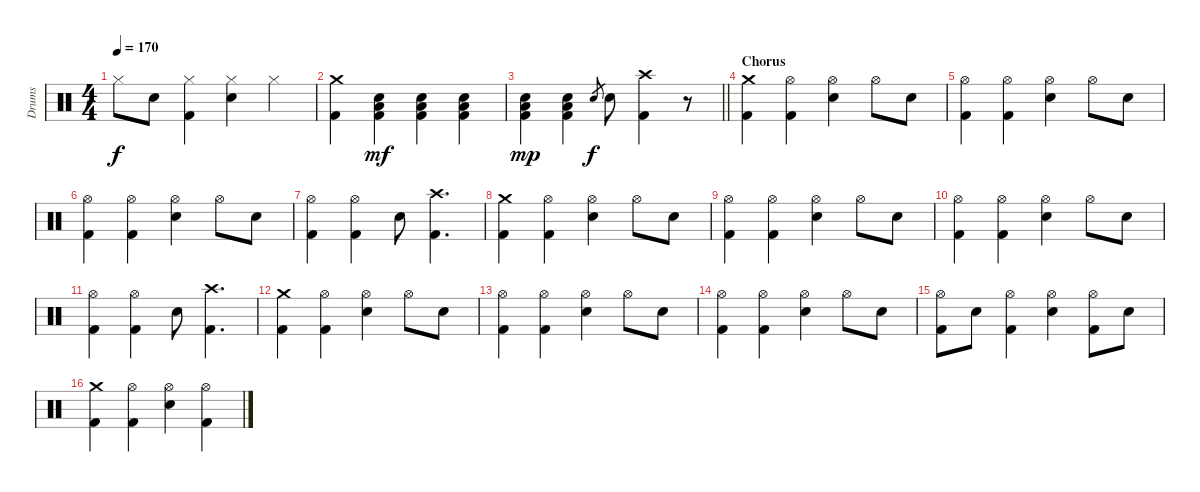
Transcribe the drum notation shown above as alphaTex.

\track ("Drums" "Drums") {instrument percussion}
\staff {score}
\articulation defaults
\ts (4 4)
\tempo 170
\clef neutral
\ks c "Hi-Hat (closed)".8{dy f} "Electric Snare (hit)".8
("Hi-Hat (closed)" "Kick (hit) 2").4 ("Hi-Hat (closed)" "Electric Snare (hit)").4 "Hi-Hat (closed)".4 |
("Crash medium (hit)" "Kick (hit) 2").4 ("Low Floor Tom (hit)" "Electric Snare (hit)" "Kick (hit) 2").4{dy mf} ("Low Floor Tom (hit)" "Electric Snare (hit)" "Kick (hit) 2").4 ("Low Floor Tom (hit)" "Electric Snare (hit)" "Kick (hit) 2").4 |
\barLineRight lightlight
("Low Floor Tom (hit)" "Electric Snare (hit)" "Kick (hit) 2").4{dy mp} ("Low Floor Tom (hit)" "Electric Snare (hit)" "Kick (hit) 2").4 "Electric Snare (hit)".8{gr dy f} "Electric Snare (hit)".8 ("Crash high (hit)" "Kick (hit) 2").4 r.8 |
\section ("" "Chorus")
("Crash medium (hit)" "Kick (hit) 2").4 ("Hi-Hat (open)" "Kick (hit) 2").4 ("Hi-Hat (open)" "Electric Snare (hit)").4 "Hi-Hat (open)".8 "Electric Snare (hit)".8 |
("Hi-Hat (open)" "Kick (hit) 2").4 ("Hi-Hat (open)" "Kick (hit) 2").4 ("Hi-Hat (open)" "Electric Snare (hit)").4 "Hi-Hat (open)".8 "Electric Snare (hit)".8 |
("Hi-Hat (open)" "Kick (hit) 2").4 ("Hi-Hat (open)" "Kick (hit) 2").4 ("Hi-Hat (open)" "Electric Snare (hit)").4 "Hi-Hat (open)".8 "Electric Snare (hit)".8 |
("Hi-Hat (open)" "Kick (hit) 2").4 ("Hi-Hat (open)" "Kick (hit) 2").4 "Electric Snare (hit)".8 ("Crash high (hit)" "Kick (hit) 2").4{d} |
("Crash medium (hit)" "Kick (hit) 2").4 ("Hi-Hat (open)" "Kick (hit) 2").4 ("Hi-Hat (open)" "Electric Snare (hit)").4 "Hi-Hat (open)".8 "Electric Snare (hit)".8 |
("Hi-Hat (open)" "Kick (hit) 2").4 ("Hi-Hat (open)" "Kick (hit) 2").4 ("Hi-Hat (open)" "Electric Snare (hit)").4 "Hi-Hat (open)".8 "Electric Snare (hit)".8 |
("Hi-Hat (open)" "Kick (hit) 2").4 ("Hi-Hat (open)" "Kick (hit) 2").4 ("Hi-Hat (open)" "Electric Snare (hit)").4 "Hi-Hat (open)".8 "Electric Snare (hit)".8 |
("Hi-Hat (open)" "Kick (hit) 2").4 ("Hi-Hat (open)" "Kick (hit) 2").4 "Electric Snare (hit)".8 ("Crash high (hit)" "Kick (hit) 2").4{d} |
("Crash medium (hit)" "Kick (hit) 2").4 ("Hi-Hat (open)" "Kick (hit) 2").4 ("Hi-Hat (open)" "Electric Snare (hit)").4 "Hi-Hat (open)".8 "Electric Snare (hit)".8 |
("Hi-Hat (open)" "Kick (hit) 2").4 ("Hi-Hat (open)" "Kick (hit) 2").4 ("Hi-Hat (open)" "Electric Snare (hit)").4 "Hi-Hat (open)".8 "Electric Snare (hit)".8 |
("Hi-Hat (open)" "Kick (hit) 2").4 ("Hi-Hat (open)" "Kick (hit) 2").4 ("Hi-Hat (open)" "Electric Snare (hit)").4 "Hi-Hat (open)".8 "Electric Snare (hit)".8 |
("Hi-Hat (open)" "Kick (hit) 2").8 "Electric Snare (hit)".8 ("Hi-Hat (open)" "Kick (hit) 2").4 ("Hi-Hat (open)" "Electric Snare (hit)").4 ("Hi-Hat (open)" "Kick (hit) 2").8 "Electric Snare (hit)".8 |
("Crash medium (hit)" "Kick (hit) 2").4 ("Hi-Hat (open)" "Kick (hit) 2").4 ("Hi-Hat (open)" "Electric Snare (hit)").4 ("Hi-Hat (open)" "Kick (hit) 2").4
